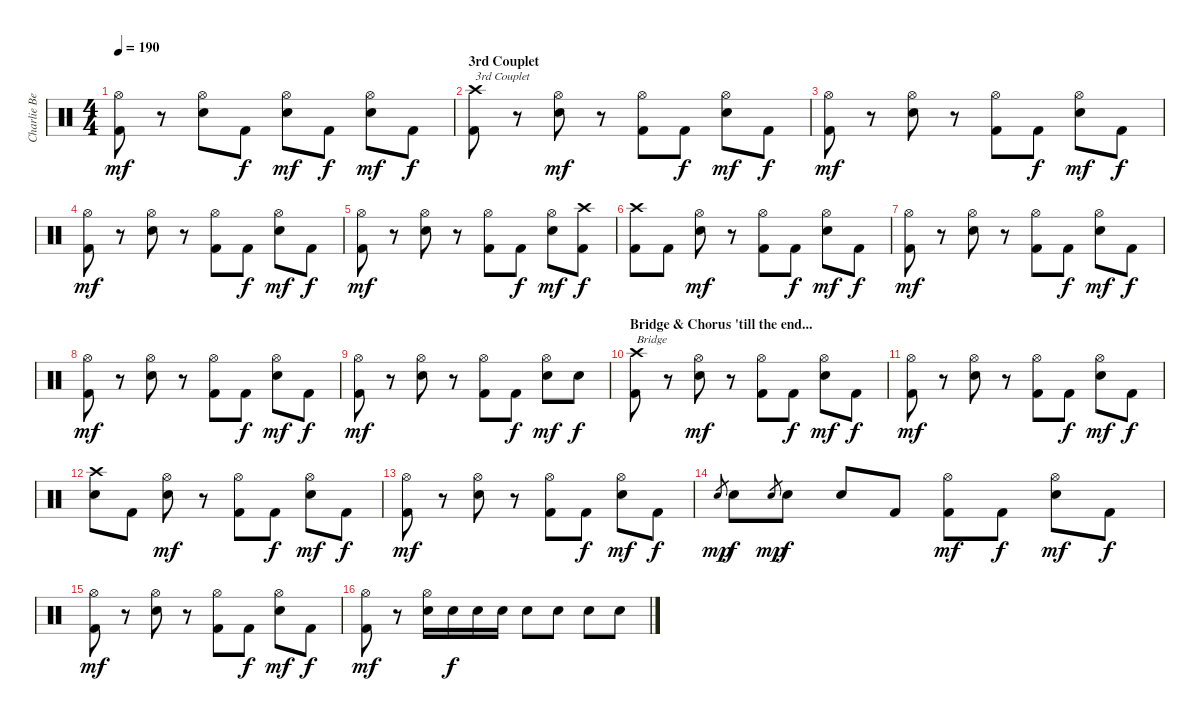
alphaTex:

\track ("Charlie Benante" "Charlie Be") {instrument percussion}
\staff {score}
\articulation defaults
\ts (4 4)
\tempo 190
\clef neutral
\ks c
("Hi-Hat (open)" "Kick (hit) 2").8{dy mf} r.8 ("Hi-Hat (open)" "Electric Snare (hit)").8 "Kick (hit) 2".8{dy f} ("Hi-Hat (open)" "Electric Snare (hit)").8{dy mf} "Kick (hit) 2".8{dy f} ("Hi-Hat (open)" "Electric Snare (hit)").8{dy mf} "Kick (hit) 2".8{dy f} |
\section ("" "3rd Couplet")
("Crash high (hit)" "Kick (hit) 2").8{txt "3rd Couplet"} r.8 ("Hi-Hat (open)" "Electric Snare (hit)").8{dy mf} r.8 ("Hi-Hat (open)" "Kick (hit) 2").8 "Kick (hit) 2".8{dy f} ("Hi-Hat (open)" "Electric Snare (hit)").8{dy mf} "Kick (hit) 2".8{dy f} |
("Hi-Hat (open)" "Kick (hit) 2").8{dy mf} r.8 ("Hi-Hat (open)" "Electric Snare (hit)").8 r.8 ("Hi-Hat (open)" "Kick (hit) 2").8 "Kick (hit) 2".8{dy f} ("Hi-Hat (open)" "Electric Snare (hit)").8{dy mf} "Kick (hit) 2".8{dy f} |
("Hi-Hat (open)" "Kick (hit) 2").8{dy mf} r.8 ("Hi-Hat (open)" "Electric Snare (hit)").8 r.8 ("Hi-Hat (open)" "Kick (hit) 2").8 "Kick (hit) 2".8{dy f} ("Hi-Hat (open)" "Electric Snare (hit)").8{dy mf} "Kick (hit) 2".8{dy f} |
("Hi-Hat (open)" "Kick (hit) 2").8{dy mf} r.8 ("Hi-Hat (open)" "Electric Snare (hit)").8 r.8 ("Hi-Hat (open)" "Kick (hit) 2").8 "Kick (hit) 2".8{dy f} ("Hi-Hat (open)" "Electric Snare (hit)").8{dy mf} ("Crash high (hit)" "Kick (hit) 2").8{dy f} |
("Crash high (hit)" "Kick (hit) 2").8 "Kick (hit) 2".8 ("Hi-Hat (open)" "Electric Snare (hit)").8{dy mf} r.8 ("Hi-Hat (open)" "Kick (hit) 2").8 "Kick (hit) 2".8{dy f} ("Hi-Hat (open)" "Electric Snare (hit)").8{dy mf} "Kick (hit) 2".8{dy f} |
("Hi-Hat (open)" "Kick (hit) 2").8{dy mf} r.8 ("Hi-Hat (open)" "Electric Snare (hit)").8 r.8 ("Hi-Hat (open)" "Kick (hit) 2").8 "Kick (hit) 2".8{dy f} ("Hi-Hat (open)" "Electric Snare (hit)").8{dy mf} "Kick (hit) 2".8{dy f} |
("Hi-Hat (open)" "Kick (hit) 2").8{dy mf} r.8 ("Hi-Hat (open)" "Electric Snare (hit)").8 r.8 ("Hi-Hat (open)" "Kick (hit) 2").8 "Kick (hit) 2".8{dy f} ("Hi-Hat (open)" "Electric Snare (hit)").8{dy mf} "Kick (hit) 2".8{dy f} |
("Hi-Hat (open)" "Kick (hit) 2").8{dy mf} r.8 ("Hi-Hat (open)" "Electric Snare (hit)").8 r.8 ("Hi-Hat (open)" "Kick (hit) 2").8 "Kick (hit) 2".8{dy f} ("Hi-Hat (open)" "Electric Snare (hit)").8{dy mf} "Snare (hit) 2".8{dy f} |
\section ("" "Bridge & Chorus 'till the end...")
("Crash high (hit)" "Kick (hit) 2").8{txt "Bridge"} r.8 ("Hi-Hat (open)" "Electric Snare (hit)").8{dy mf} r.8 ("Hi-Hat (open)" "Kick (hit) 2").8 "Kick (hit) 2".8{dy f} ("Hi-Hat (open)" "Electric Snare (hit)").8{dy mf} "Kick (hit) 2".8{dy f} |
("Hi-Hat (open)" "Kick (hit) 2").8{dy mf} r.8 ("Hi-Hat (open)" "Electric Snare (hit)").8 r.8 ("Hi-Hat (open)" "Kick (hit) 2").8 "Kick (hit) 2".8{dy f} ("Hi-Hat (open)" "Electric Snare (hit)").8{dy mf} "Kick (hit) 2".8{dy f} |
("Crash high (hit)" "Electric Snare (hit)").8 "Kick (hit) 2".8 ("Hi-Hat (open)" "Electric Snare (hit)").8{dy mf} r.8 ("Hi-Hat (open)" "Kick (hit) 2").8 "Kick (hit) 2".8{dy f} ("Hi-Hat (open)" "Electric Snare (hit)").8{dy mf} "Kick (hit) 2".8{dy f} |
("Hi-Hat (open)" "Kick (hit) 2").8{dy mf} r.8 ("Hi-Hat (open)" "Electric Snare (hit)").8 r.8 ("Hi-Hat (open)" "Kick (hit) 2").8 "Kick (hit) 2".8{dy f} ("Hi-Hat (open)" "Electric Snare (hit)").8{dy mf} "Kick (hit) 2".8{dy f} |
"Snare (hit) 2".8{gr dy mp} "Electric Snare (hit)".8{dy f} "Snare (hit) 2".8{gr dy mp} "Electric Snare (hit)".8{dy f} "Electric Snare (hit)".8 "Kick (hit) 2".8 ("Hi-Hat (open)" "Kick (hit) 2").8{dy mf} "Kick (hit) 2".8{dy f} ("Hi-Hat (open)" "Electric Snare (hit)").8{dy mf} "Kick (hit) 2".8{dy f} |
("Hi-Hat (open)" "Kick (hit) 2").8{dy mf} r.8 ("Hi-Hat (open)" "Electric Snare (hit)").8 r.8 ("Hi-Hat (open)" "Kick (hit) 2").8 "Kick (hit) 2".8{dy f} ("Hi-Hat (open)" "Electric Snare (hit)").8{dy mf} "Kick (hit) 2".8{dy f} |
("Hi-Hat (open)" "Kick (hit) 2").8{dy mf} r.8 ("Hi-Hat (open)" "Electric Snare (hit)").16 "Electric Snare (hit)".16{dy f} "Electric Snare (hit)".16 "Electric Snare (hit)".16 "Electric Snare (hit)".8 "Electric Snare (hit)".8 "Electric Snare (hit)".8 "Electric Snare (hit)".8
